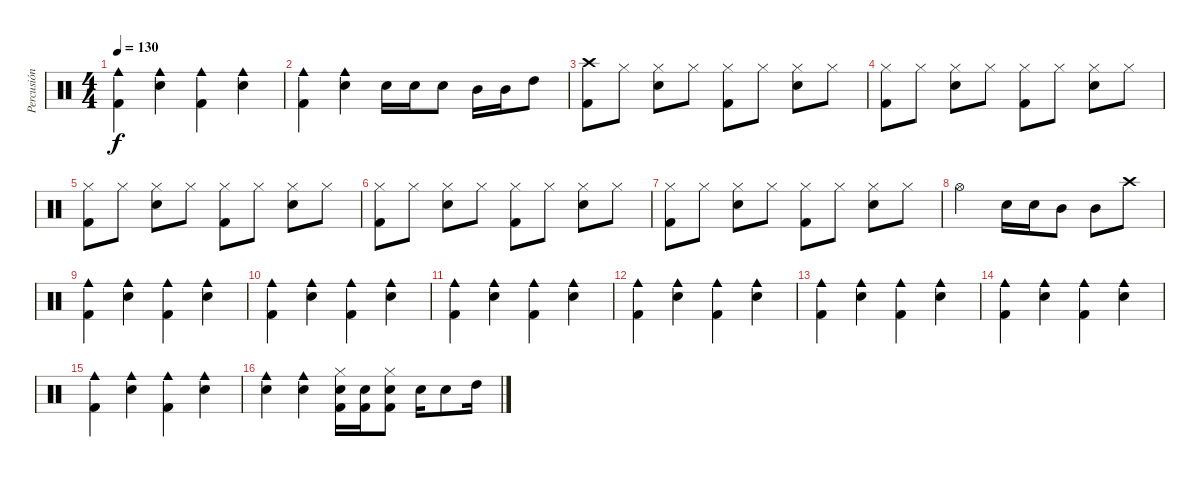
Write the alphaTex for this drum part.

\track ("Percusión" "Percusión") {instrument percussion}
\staff {score}
\articulation defaults
\ts (4 4)
\tempo 130
\clef neutral
\ks c
("Cowbell medium (hit)" "Kick (hit) 2").4{dy f} ("Cowbell medium (hit)" "Snare (hit) 2").4 ("Cowbell medium (hit)" "Kick (hit) 2").4 ("Cowbell medium (hit)" "Snare (hit) 2").4 |
("Cowbell medium (hit)" "Kick (hit) 2").4 ("Cowbell medium (hit)" "Snare (hit) 2").4 "Snare (hit) 2".16 "Snare (hit) 2".16 "Snare (hit) 2".8 "Mid Tom (hit)".16 "Mid Tom (hit)".16 "High Tom (hit)".8 |
("Crash high (hit)" "Kick (hit) 2").8 "Hi-Hat (closed)".8 ("Hi-Hat (closed)" "Snare (hit) 2").8 "Hi-Hat (closed)".8 ("Hi-Hat (closed)" "Kick (hit) 2").8 "Hi-Hat (closed)".8 ("Hi-Hat (closed)" "Snare (hit) 2").8 "Hi-Hat (closed)".8 |
("Hi-Hat (closed)" "Kick (hit) 2").8 "Hi-Hat (closed)".8 ("Hi-Hat (closed)" "Snare (hit) 2").8 "Hi-Hat (closed)".8 ("Hi-Hat (closed)" "Kick (hit) 2").8 "Hi-Hat (closed)".8 ("Hi-Hat (closed)" "Snare (hit) 2").8 "Hi-Hat (closed)".8 |
("Hi-Hat (closed)" "Kick (hit) 2").8 "Hi-Hat (closed)".8 ("Hi-Hat (closed)" "Snare (hit) 2").8 "Hi-Hat (closed)".8 ("Hi-Hat (closed)" "Kick (hit) 2").8 "Hi-Hat (closed)".8 ("Hi-Hat (closed)" "Snare (hit) 2").8 "Hi-Hat (closed)".8 |
("Hi-Hat (closed)" "Kick (hit) 2").8 "Hi-Hat (closed)".8 ("Hi-Hat (closed)" "Snare (hit) 2").8 "Hi-Hat (closed)".8 ("Hi-Hat (closed)" "Kick (hit) 2").8 "Hi-Hat (closed)".8 ("Hi-Hat (closed)" "Snare (hit) 2").8 "Hi-Hat (closed)".8 |
("Hi-Hat (closed)" "Kick (hit) 2").8 "Hi-Hat (closed)".8 ("Hi-Hat (closed)" "Snare (hit) 2").8 "Hi-Hat (closed)".8 ("Hi-Hat (closed)" "Kick (hit) 2").8 "Hi-Hat (closed)".8 ("Hi-Hat (closed)" "Snare (hit) 2").8 "Hi-Hat (closed)".8 |
"Hi-Hat (open)".2 "Snare (hit) 2".16 "Snare (hit) 2".16 "Mid Tom (hit)".8 "Mid Tom (hit)".8 "Crash high (hit)".8 |
("Cowbell medium (hit)" "Kick (hit) 2").4 ("Cowbell medium (hit)" "Snare (hit) 2").4 ("Cowbell medium (hit)" "Kick (hit) 2").4 ("Cowbell medium (hit)" "Snare (hit) 2").4 |
("Cowbell medium (hit)" "Kick (hit) 2").4 ("Cowbell medium (hit)" "Snare (hit) 2").4 ("Cowbell medium (hit)" "Kick (hit) 2").4 ("Cowbell medium (hit)" "Snare (hit) 2").4 |
("Cowbell medium (hit)" "Kick (hit) 2").4 ("Cowbell medium (hit)" "Snare (hit) 2").4 ("Cowbell medium (hit)" "Kick (hit) 2").4 ("Cowbell medium (hit)" "Snare (hit) 2").4 |
("Cowbell medium (hit)" "Kick (hit) 2").4 ("Cowbell medium (hit)" "Snare (hit) 2").4 ("Cowbell medium (hit)" "Kick (hit) 2").4 ("Cowbell medium (hit)" "Snare (hit) 2").4 |
("Cowbell medium (hit)" "Kick (hit) 2").4 ("Cowbell medium (hit)" "Snare (hit) 2").4 ("Cowbell medium (hit)" "Kick (hit) 2").4 ("Cowbell medium (hit)" "Snare (hit) 2").4 |
("Cowbell medium (hit)" "Kick (hit) 2").4 ("Cowbell medium (hit)" "Snare (hit) 2").4 ("Cowbell medium (hit)" "Kick (hit) 2").4 ("Cowbell medium (hit)" "Snare (hit) 2").4 |
("Cowbell medium (hit)" "Kick (hit) 2").4 ("Cowbell medium (hit)" "Snare (hit) 2").4 ("Cowbell medium (hit)" "Kick (hit) 2").4 ("Cowbell medium (hit)" "Snare (hit) 2").4 |
("Cowbell medium (hit)" "Snare (hit) 2").4 ("Cowbell medium (hit)" "Snare (hit) 2").4 ("Hi-Hat (closed)" "Snare (hit) 2" "Kick (hit) 2").16 ("Snare (hit) 2" "Kick (hit) 2").16 ("Hi-Hat (closed)" "Snare (hit) 2" "Kick (hit) 2").8 "Electric Snare (hit)".16 "Electric Snare (hit)".8 "High Tom (hit)".16
